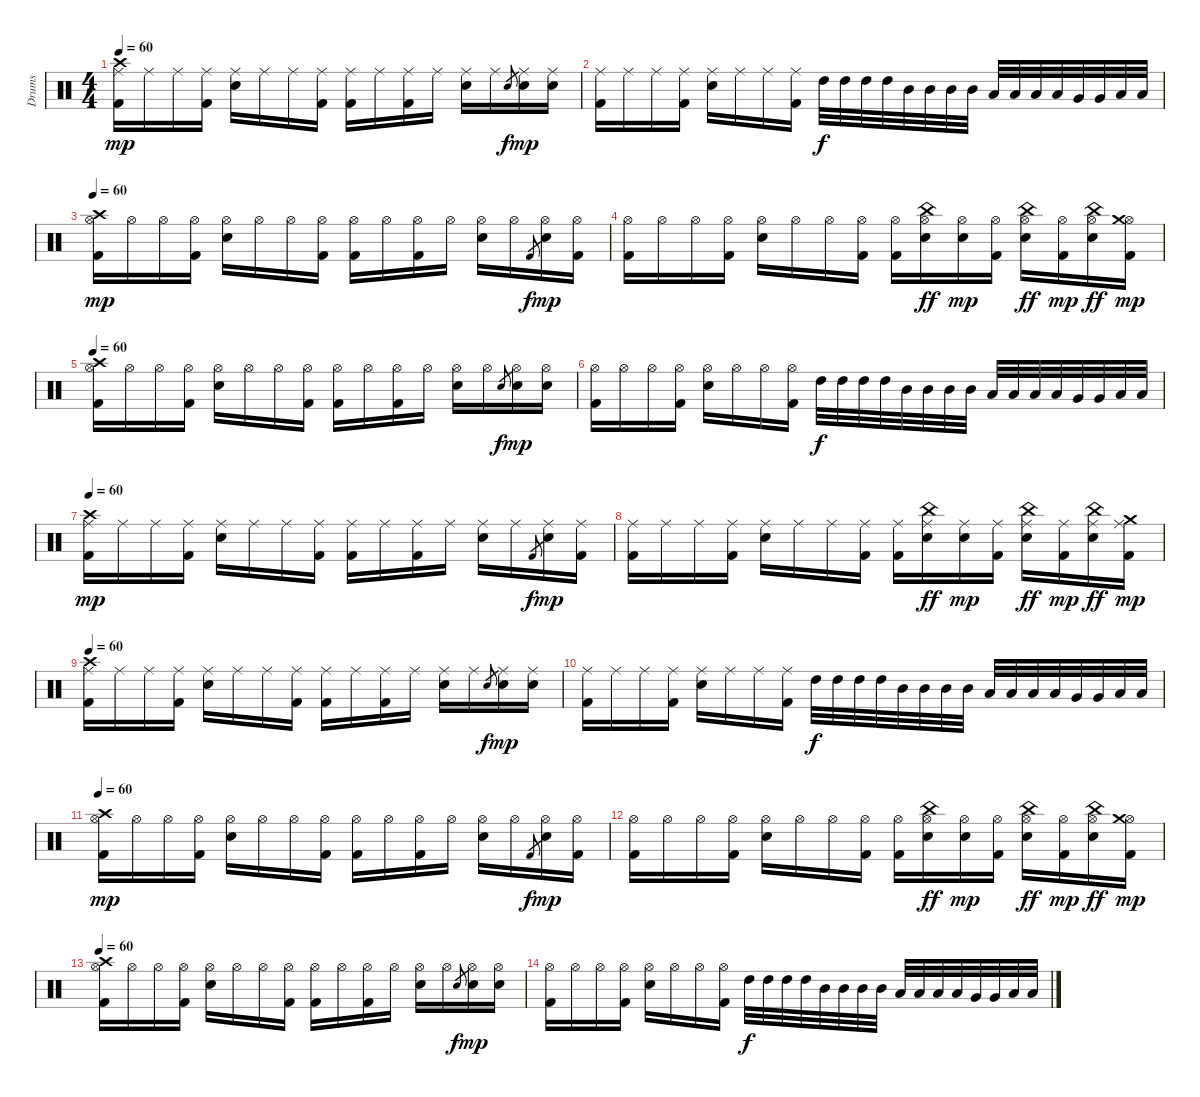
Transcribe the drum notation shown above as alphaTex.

\track ("Drums" "Drums") {instrument percussion}
\staff {score}
\articulation defaults
\ts (4 4)
\tempo 60
\clef neutral
\ks c
("Crash high (hit)" "Ride (middle)" "Kick (hit) 2").16{dy mp} "Ride (middle)".16 "Ride (middle)".16 ("Ride (middle)" "Kick (hit) 2").16 ("Ride (middle)" "Snare (hit) 2").16 "Ride (middle)".16 "Ride (middle)".16 ("Ride (middle)" "Kick (hit) 2").16 ("Ride (middle)" "Kick (hit) 2").16 "Ride (middle)".16 ("Ride (middle)" "Kick (hit) 2").16 "Ride (middle)".16 ("Ride (middle)" "Snare (hit) 2").16 "Ride (middle)".16 "Snare (hit) 2".8{gr dy f} ("Ride (middle)" "Snare (hit) 2").16{dy mp} ("Ride (middle)" "Snare (hit) 2").16 |
("Ride (middle)" "Kick (hit) 2").16 "Ride (middle)".16 "Ride (middle)".16 ("Ride (middle)" "Kick (hit) 2").16 ("Ride (middle)" "Snare (hit) 2").16 "Ride (middle)".16 "Ride (middle)".16 ("Ride (middle)" "Kick (hit) 2").16 "High Tom (hit)".32{dy f} "High Tom (hit)".32 "High Tom (hit)".32 "High Tom (hit)".32 "Mid Tom (hit)".32 "Mid Tom (hit)".32 "Mid Tom (hit)".32 "Mid Tom (hit)".32 "Low Tom (hit)".32 "Low Tom (hit)".32 "Low Tom (hit)".32 "Low Tom (hit)".32 "Very Low Tom (hit)".32 "Very Low Tom (hit)".32 "Low Floor Tom (hit)".32 "Low Floor Tom (hit)".32 |
\tempo 60
("Crash high (hit)" "Hi-Hat (open)" "Kick (hit) 2").16{dy mp} "Hi-Hat (open)".16 "Hi-Hat (open)".16 ("Hi-Hat (open)" "Kick (hit) 2").16 ("Hi-Hat (open)" "Snare (hit) 2").16 "Hi-Hat (open)".16 "Hi-Hat (open)".16 ("Hi-Hat (open)" "Kick (hit) 2").16 ("Hi-Hat (open)" "Kick (hit) 2").16 "Hi-Hat (open)".16 ("Hi-Hat (open)" "Kick (hit) 2").16 "Hi-Hat (open)".16 ("Hi-Hat (open)" "Snare (hit) 2").16 "Hi-Hat (open)".16 "Kick (hit) 2".8{gr dy f} ("Hi-Hat (open)" "Snare (hit) 2").16{dy mp} ("Hi-Hat (open)" "Kick (hit) 2").16 |
("Hi-Hat (open)" "Kick (hit) 2").16 "Hi-Hat (open)".16 "Hi-Hat (open)".16 ("Hi-Hat (open)" "Kick (hit) 2").16 ("Hi-Hat (open)" "Snare (hit) 2").16 "Hi-Hat (open)".16 "Hi-Hat (open)".16 ("Hi-Hat (open)" "Kick (hit) 2").16 ("Hi-Hat (open)" "Kick (hit) 2").16 ("Hi-Hat (open)" "China (hit)" "Snare (hit) 2").16{dy ff} ("Hi-Hat (open)" "Snare (hit) 2").16{dy mp} ("Hi-Hat (open)" "Kick (hit) 2").16 ("Hi-Hat (open)" "China (hit)" "Snare (hit) 2").16{dy ff} ("Hi-Hat (open)" "Kick (hit) 2").16{dy mp} ("Hi-Hat (open)" "China (hit)" "Snare (hit) 2").16{dy ff} ("Hi-Hat (open)" "Crash medium (hit)" "Kick (hit) 2").16{dy mp} |
\tempo 60
("Crash high (hit)" "Hi-Hat (open)" "Kick (hit) 2").16 "Hi-Hat (open)".16 "Hi-Hat (open)".16 ("Hi-Hat (open)" "Kick (hit) 2").16 ("Hi-Hat (open)" "Snare (hit) 2").16 "Hi-Hat (open)".16 "Hi-Hat (open)".16 ("Hi-Hat (open)" "Kick (hit) 2").16 ("Hi-Hat (open)" "Kick (hit) 2").16 "Hi-Hat (open)".16 ("Hi-Hat (open)" "Kick (hit) 2").16 "Hi-Hat (open)".16 ("Hi-Hat (open)" "Snare (hit) 2").16 "Hi-Hat (open)".16 "Snare (hit) 2".8{gr dy f} ("Hi-Hat (open)" "Snare (hit) 2").16{dy mp} ("Hi-Hat (open)" "Snare (hit) 2").16 |
("Hi-Hat (open)" "Kick (hit) 2").16 "Hi-Hat (open)".16 "Hi-Hat (open)".16 ("Hi-Hat (open)" "Kick (hit) 2").16 ("Hi-Hat (open)" "Snare (hit) 2").16 "Hi-Hat (open)".16 "Hi-Hat (open)".16 ("Hi-Hat (open)" "Kick (hit) 2").16 "High Tom (hit)".32{dy f} "High Tom (hit)".32 "High Tom (hit)".32 "High Tom (hit)".32 "Mid Tom (hit)".32 "Mid Tom (hit)".32 "Mid Tom (hit)".32 "Mid Tom (hit)".32 "Low Tom (hit)".32 "Low Tom (hit)".32 "Low Tom (hit)".32 "Low Tom (hit)".32 "Very Low Tom (hit)".32 "Very Low Tom (hit)".32 "Low Floor Tom (hit)".32 "Low Floor Tom (hit)".32 |
\tempo 60
("Crash high (hit)" "Ride (middle)" "Kick (hit) 2").16{dy mp} "Ride (middle)".16 "Ride (middle)".16 ("Ride (middle)" "Kick (hit) 2").16 ("Ride (middle)" "Snare (hit) 2").16 "Ride (middle)".16 "Ride (middle)".16 ("Ride (middle)" "Kick (hit) 2").16 ("Ride (middle)" "Kick (hit) 2").16 "Ride (middle)".16 ("Ride (middle)" "Kick (hit) 2").16 "Ride (middle)".16 ("Ride (middle)" "Snare (hit) 2").16 "Ride (middle)".16 "Kick (hit) 2".8{gr dy f} ("Ride (middle)" "Snare (hit) 2").16{dy mp} ("Ride (middle)" "Kick (hit) 2").16 |
("Ride (middle)" "Kick (hit) 2").16 "Ride (middle)".16 "Ride (middle)".16 ("Ride (middle)" "Kick (hit) 2").16 ("Ride (middle)" "Snare (hit) 2").16 "Ride (middle)".16 "Ride (middle)".16 ("Ride (middle)" "Kick (hit) 2").16 ("Ride (middle)" "Kick (hit) 2").16 ("Ride (middle)" "China (hit)" "Snare (hit) 2").16{dy ff} ("Ride (middle)" "Snare (hit) 2").16{dy mp} ("Ride (middle)" "Kick (hit) 2").16 ("Ride (middle)" "China (hit)" "Snare (hit) 2").16{dy ff} ("Ride (middle)" "Kick (hit) 2").16{dy mp} ("Ride (middle)" "China (hit)" "Snare (hit) 2").16{dy ff} ("Ride (middle)" "Crash medium (hit)" "Kick (hit) 2").16{dy mp} |
\tempo 60
("Crash high (hit)" "Ride (middle)" "Kick (hit) 2").16 "Ride (middle)".16 "Ride (middle)".16 ("Ride (middle)" "Kick (hit) 2").16 ("Ride (middle)" "Snare (hit) 2").16 "Ride (middle)".16 "Ride (middle)".16 ("Ride (middle)" "Kick (hit) 2").16 ("Ride (middle)" "Kick (hit) 2").16 "Ride (middle)".16 ("Ride (middle)" "Kick (hit) 2").16 "Ride (middle)".16 ("Ride (middle)" "Snare (hit) 2").16 "Ride (middle)".16 "Snare (hit) 2".8{gr dy f} ("Ride (middle)" "Snare (hit) 2").16{dy mp} ("Ride (middle)" "Snare (hit) 2").16 |
("Ride (middle)" "Kick (hit) 2").16 "Ride (middle)".16 "Ride (middle)".16 ("Ride (middle)" "Kick (hit) 2").16 ("Ride (middle)" "Snare (hit) 2").16 "Ride (middle)".16 "Ride (middle)".16 ("Ride (middle)" "Kick (hit) 2").16 "High Tom (hit)".32{dy f} "High Tom (hit)".32 "High Tom (hit)".32 "High Tom (hit)".32 "Mid Tom (hit)".32 "Mid Tom (hit)".32 "Mid Tom (hit)".32 "Mid Tom (hit)".32 "Low Tom (hit)".32 "Low Tom (hit)".32 "Low Tom (hit)".32 "Low Tom (hit)".32 "Very Low Tom (hit)".32 "Very Low Tom (hit)".32 "Low Floor Tom (hit)".32 "Low Floor Tom (hit)".32 |
\tempo 60
("Crash high (hit)" "Hi-Hat (open)" "Kick (hit) 2").16{dy mp} "Hi-Hat (open)".16 "Hi-Hat (open)".16 ("Hi-Hat (open)" "Kick (hit) 2").16 ("Hi-Hat (open)" "Snare (hit) 2").16 "Hi-Hat (open)".16 "Hi-Hat (open)".16 ("Hi-Hat (open)" "Kick (hit) 2").16 ("Hi-Hat (open)" "Kick (hit) 2").16 "Hi-Hat (open)".16 ("Hi-Hat (open)" "Kick (hit) 2").16{volume 2} "Hi-Hat (open)".16 ("Hi-Hat (open)" "Snare (hit) 2").16 "Hi-Hat (open)".16 "Kick (hit) 2".8{gr dy f} ("Hi-Hat (open)" "Snare (hit) 2").16{dy mp} ("Hi-Hat (open)" "Kick (hit) 2").16 |
("Hi-Hat (open)" "Kick (hit) 2").16 "Hi-Hat (open)".16 "Hi-Hat (open)".16 ("Hi-Hat (open)" "Kick (hit) 2").16 ("Hi-Hat (open)" "Snare (hit) 2").16 "Hi-Hat (open)".16 "Hi-Hat (open)".16 ("Hi-Hat (open)" "Kick (hit) 2").16 ("Hi-Hat (open)" "Kick (hit) 2").16 ("Hi-Hat (open)" "China (hit)" "Snare (hit) 2").16{dy ff} ("Hi-Hat (open)" "Snare (hit) 2").16{dy mp} ("Hi-Hat (open)" "Kick (hit) 2").16 ("Hi-Hat (open)" "China (hit)" "Snare (hit) 2").16{dy ff} ("Hi-Hat (open)" "Kick (hit) 2").16{dy mp} ("Hi-Hat (open)" "China (hit)" "Snare (hit) 2").16{dy ff} ("Hi-Hat (open)" "Crash medium (hit)" "Kick (hit) 2").16{dy mp} |
\tempo 60
("Crash high (hit)" "Hi-Hat (open)" "Kick (hit) 2").16 "Hi-Hat (open)".16 "Hi-Hat (open)".16 ("Hi-Hat (open)" "Kick (hit) 2").16 ("Hi-Hat (open)" "Snare (hit) 2").16 "Hi-Hat (open)".16 "Hi-Hat (open)".16 ("Hi-Hat (open)" "Kick (hit) 2").16 ("Hi-Hat (open)" "Kick (hit) 2").16 "Hi-Hat (open)".16 ("Hi-Hat (open)" "Kick (hit) 2").16 "Hi-Hat (open)".16 ("Hi-Hat (open)" "Snare (hit) 2").16{volume 0} "Hi-Hat (open)".16 "Snare (hit) 2".8{gr dy f} ("Hi-Hat (open)" "Snare (hit) 2").16{dy mp} ("Hi-Hat (open)" "Snare (hit) 2").16 |
("Hi-Hat (open)" "Kick (hit) 2").16 "Hi-Hat (open)".16 "Hi-Hat (open)".16 ("Hi-Hat (open)" "Kick (hit) 2").16 ("Hi-Hat (open)" "Snare (hit) 2").16 "Hi-Hat (open)".16 "Hi-Hat (open)".16 ("Hi-Hat (open)" "Kick (hit) 2").16 "High Tom (hit)".32{dy f} "High Tom (hit)".32 "High Tom (hit)".32 "High Tom (hit)".32 "Mid Tom (hit)".32 "Mid Tom (hit)".32 "Mid Tom (hit)".32 "Mid Tom (hit)".32 "Low Tom (hit)".32 "Low Tom (hit)".32 "Low Tom (hit)".32 "Low Tom (hit)".32 "Very Low Tom (hit)".32 "Very Low Tom (hit)".32 "Low Floor Tom (hit)".32 "Low Floor Tom (hit)".32
